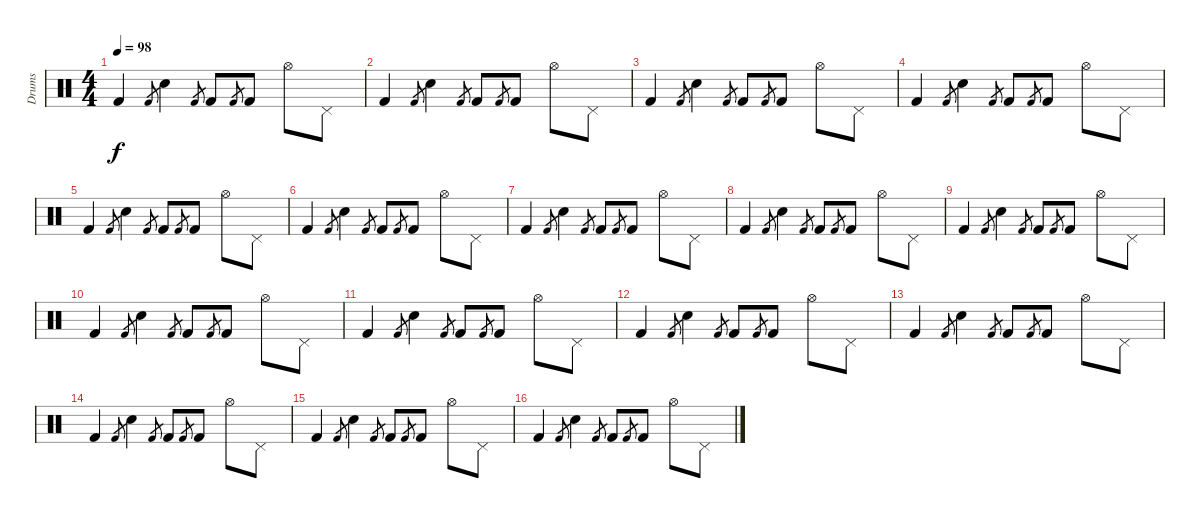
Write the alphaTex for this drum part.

\track ("Drums" "Drums") {instrument percussion}
\staff {score}
\articulation defaults
\ts (4 4)
\tempo 98
\clef neutral
\ks c "Kick (hit) 2".4{dy f} "Kick (hit) 2".8{gr} "Snare (hit) 2".4 "Kick (hit) 2".8{gr} "Kick (hit) 2".8 "Kick (hit) 2".8{gr} "Kick (hit) 2".8 "Hi-Hat (open)".8 "Pedal Hi-Hat (hit)".8
|
"Kick (hit) 2".4 "Kick (hit) 2".8{gr} "Snare (hit) 2".4 "Kick (hit) 2".8{gr} "Kick (hit) 2".8 "Kick (hit) 2".8{gr} "Kick (hit) 2".8 "Hi-Hat (open)".8 "Pedal Hi-Hat (hit)".8 |
"Kick (hit) 2".4 "Kick (hit) 2".8{gr} "Snare (hit) 2".4 "Kick (hit) 2".8{gr} "Kick (hit) 2".8 "Kick (hit) 2".8{gr} "Kick (hit) 2".8 "Hi-Hat (open)".8 "Pedal Hi-Hat (hit)".8 |
"Kick (hit) 2".4 "Kick (hit) 2".8{gr} "Snare (hit) 2".4 "Kick (hit) 2".8{gr} "Kick (hit) 2".8 "Kick (hit) 2".8{gr} "Kick (hit) 2".8 "Hi-Hat (open)".8 "Pedal Hi-Hat (hit)".8 |
"Kick (hit) 2".4 "Kick (hit) 2".8{gr} "Snare (hit) 2".4 "Kick (hit) 2".8{gr} "Kick (hit) 2".8 "Kick (hit) 2".8{gr} "Kick (hit) 2".8 "Hi-Hat (open)".8 "Pedal Hi-Hat (hit)".8 |
"Kick (hit) 2".4 "Kick (hit) 2".8{gr} "Snare (hit) 2".4 "Kick (hit) 2".8{gr} "Kick (hit) 2".8 "Kick (hit) 2".8{gr} "Kick (hit) 2".8 "Hi-Hat (open)".8 "Pedal Hi-Hat (hit)".8 |
"Kick (hit) 2".4 "Kick (hit) 2".8{gr} "Snare (hit) 2".4 "Kick (hit) 2".8{gr} "Kick (hit) 2".8 "Kick (hit) 2".8{gr} "Kick (hit) 2".8 "Hi-Hat (open)".8 "Pedal Hi-Hat (hit)".8 |
"Kick (hit) 2".4 "Kick (hit) 2".8{gr} "Snare (hit) 2".4 "Kick (hit) 2".8{gr} "Kick (hit) 2".8 "Kick (hit) 2".8{gr} "Kick (hit) 2".8 "Hi-Hat (open)".8 "Pedal Hi-Hat (hit)".8 |
"Kick (hit) 2".4 "Kick (hit) 2".8{gr} "Snare (hit) 2".4 "Kick (hit) 2".8{gr} "Kick (hit) 2".8 "Kick (hit) 2".8{gr} "Kick (hit) 2".8 "Hi-Hat (open)".8 "Pedal Hi-Hat (hit)".8 |
"Kick (hit) 2".4 "Kick (hit) 2".8{gr} "Snare (hit) 2".4 "Kick (hit) 2".8{gr} "Kick (hit) 2".8 "Kick (hit) 2".8{gr} "Kick (hit) 2".8 "Hi-Hat (open)".8 "Pedal Hi-Hat (hit)".8 |
"Kick (hit) 2".4 "Kick (hit) 2".8{gr} "Snare (hit) 2".4 "Kick (hit) 2".8{gr} "Kick (hit) 2".8 "Kick (hit) 2".8{gr} "Kick (hit) 2".8 "Hi-Hat (open)".8 "Pedal Hi-Hat (hit)".8 |
"Kick (hit) 2".4 "Kick (hit) 2".8{gr} "Snare (hit) 2".4 "Kick (hit) 2".8{gr} "Kick (hit) 2".8 "Kick (hit) 2".8{gr} "Kick (hit) 2".8 "Hi-Hat (open)".8 "Pedal Hi-Hat (hit)".8 |
"Kick (hit) 2".4 "Kick (hit) 2".8{gr} "Snare (hit) 2".4 "Kick (hit) 2".8{gr} "Kick (hit) 2".8 "Kick (hit) 2".8{gr} "Kick (hit) 2".8 "Hi-Hat (open)".8 "Pedal Hi-Hat (hit)".8 |
"Kick (hit) 2".4 "Kick (hit) 2".8{gr} "Snare (hit) 2".4 "Kick (hit) 2".8{gr} "Kick (hit) 2".8 "Kick (hit) 2".8{gr} "Kick (hit) 2".8 "Hi-Hat (open)".8 "Pedal Hi-Hat (hit)".8 |
"Kick (hit) 2".4 "Kick (hit) 2".8{gr} "Snare (hit) 2".4 "Kick (hit) 2".8{gr} "Kick (hit) 2".8 "Kick (hit) 2".8{gr} "Kick (hit) 2".8 "Hi-Hat (open)".8 "Pedal Hi-Hat (hit)".8 |
"Kick (hit) 2".4 "Kick (hit) 2".8{gr} "Snare (hit) 2".4 "Kick (hit) 2".8{gr} "Kick (hit) 2".8 "Kick (hit) 2".8{gr} "Kick (hit) 2".8 "Hi-Hat (open)".8 "Pedal Hi-Hat (hit)".8
